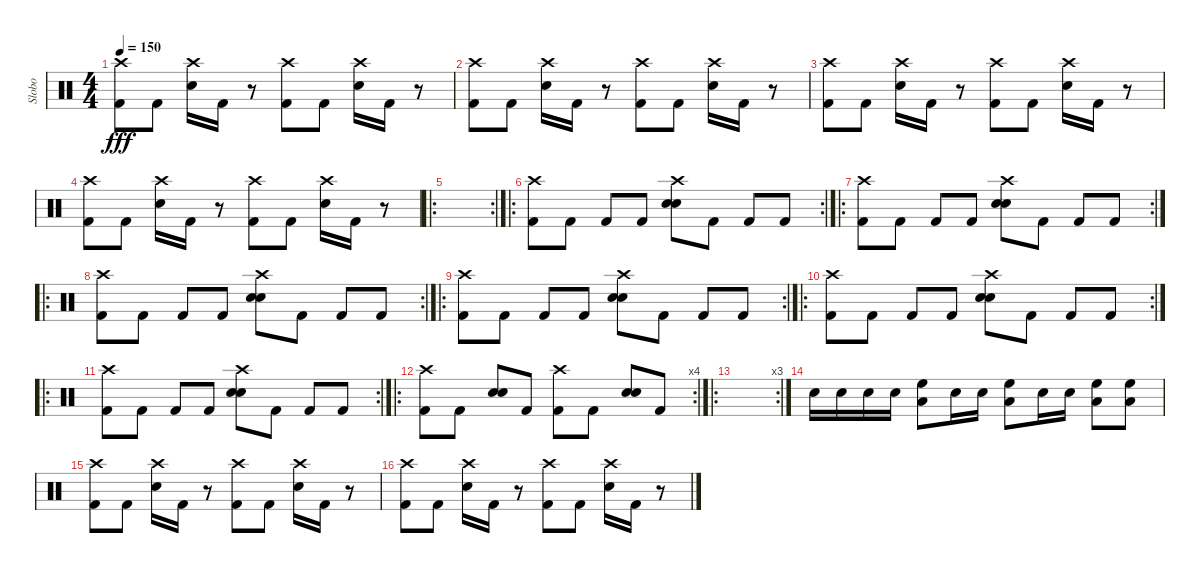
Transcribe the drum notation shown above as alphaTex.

\track ("Slobo" "Slobo") {instrument percussion}
\staff {score}
\articulation defaults
\ts (4 4)
\tempo 150
\clef neutral
\ks c
("Crash high (hit)" "Kick (hit) 2").8{dy fff} "Kick (hit) 2".8 ("Crash high (hit)" "Snare (hit) 2").16 "Kick (hit) 2".16 r.8 ("Crash high (hit)" "Kick (hit) 2").8 "Kick (hit) 2".8 ("Crash high (hit)" "Snare (hit) 2").16 "Kick (hit) 2".16 r.8 |
("Crash high (hit)" "Kick (hit) 2").8 "Kick (hit) 2".8 ("Crash high (hit)" "Snare (hit) 2").16 "Kick (hit) 2".16 r.8 ("Crash high (hit)" "Kick (hit) 2").8 "Kick (hit) 2".8 ("Crash high (hit)" "Snare (hit) 2").16 "Kick (hit) 2".16 r.8 |
("Crash high (hit)" "Kick (hit) 2").8 "Kick (hit) 2".8 ("Crash high (hit)" "Snare (hit) 2").16 "Kick (hit) 2".16 r.8 ("Crash high (hit)" "Kick (hit) 2").8 "Kick (hit) 2".8 ("Crash high (hit)" "Snare (hit) 2").16 "Kick (hit) 2".16 r.8 |
("Crash high (hit)" "Kick (hit) 2").8 "Kick (hit) 2".8 ("Crash high (hit)" "Snare (hit) 2").16 "Kick (hit) 2".16 r.8 ("Crash high (hit)" "Kick (hit) 2").8 "Kick (hit) 2".8 ("Crash high (hit)" "Snare (hit) 2").16 "Kick (hit) 2".16 r.8 |
\ro
\rc 2
|
\ro
\rc 2
("Crash high (hit)" "Kick (hit) 2").8 "Kick (hit) 2".8 "Kick (hit) 2".8 "Kick (hit) 2".8 ("Crash high (hit)" "Snare (hit) 2" "Snare (hit) 2").8{bd 480} "Kick (hit) 2".8 "Kick (hit) 2".8 "Kick (hit) 2".8 |
\ro
\rc 2
("Crash high (hit)" "Kick (hit) 2").8 "Kick (hit) 2".8 "Kick (hit) 2".8 "Kick (hit) 2".8 ("Crash high (hit)" "Snare (hit) 2" "Snare (hit) 2").8{bu 480} "Kick (hit) 2".8 "Kick (hit) 2".8 "Kick (hit) 2".8 |
\ro
\rc 2
("Crash high (hit)" "Kick (hit) 2").8 "Kick (hit) 2".8 "Kick (hit) 2".8 "Kick (hit) 2".8 ("Crash high (hit)" "Snare (hit) 2" "Snare (hit) 2").8{bu 480} "Kick (hit) 2".8 "Kick (hit) 2".8 "Kick (hit) 2".8 |
\ro
\rc 2
("Crash high (hit)" "Kick (hit) 2").8 "Kick (hit) 2".8 "Kick (hit) 2".8 "Kick (hit) 2".8 ("Crash high (hit)" "Snare (hit) 2" "Snare (hit) 2").8{bu 480} "Kick (hit) 2".8 "Kick (hit) 2".8 "Kick (hit) 2".8 |
\ro
\rc 2
("Crash high (hit)" "Kick (hit) 2").8 "Kick (hit) 2".8 "Kick (hit) 2".8 "Kick (hit) 2".8 ("Crash high (hit)" "Snare (hit) 2" "Snare (hit) 2").8{bu 480} "Kick (hit) 2".8 "Kick (hit) 2".8 "Kick (hit) 2".8 |
\ro
\rc 2
("Crash high (hit)" "Kick (hit) 2").8 "Kick (hit) 2".8 "Kick (hit) 2".8 "Kick (hit) 2".8 ("Crash high (hit)" "Snare (hit) 2" "Snare (hit) 2").8{bu 480} "Kick (hit) 2".8 "Kick (hit) 2".8 "Kick (hit) 2".8 |
\ro
\rc 4
("Crash high (hit)" "Kick (hit) 2").8 "Kick (hit) 2".8 ("Snare (hit) 2" "Snare (hit) 2").8{bu 480} "Kick (hit) 2".8 ("Crash high (hit)" "Kick (hit) 2").8 "Kick (hit) 2".8 ("Snare (hit) 2" "Snare (hit) 2").8{bu 480} "Kick (hit) 2".8 |
\ro
\rc 3
|
"Snare (hit) 2".16 "Snare (hit) 2".16 "Snare (hit) 2".16 "Snare (hit) 2".16 ("High Floor Tom (hit)" "Low Floor Tom (hit)").8 "Snare (hit) 2".16 "Snare (hit) 2".16 ("High Floor Tom (hit)" "Low Floor Tom (hit)").8 "Snare (hit) 2".16 "Snare (hit) 2".16 ("High Floor Tom (hit)" "Low Floor Tom (hit)").8 ("High Floor Tom (hit)" "Low Floor Tom (hit)").8 |
("Crash high (hit)" "Kick (hit) 2").8 "Kick (hit) 2".8 ("Crash high (hit)" "Snare (hit) 2").16 "Kick (hit) 2".16 r.8 ("Crash high (hit)" "Kick (hit) 2").8 "Kick (hit) 2".8 ("Crash high (hit)" "Snare (hit) 2").16 "Kick (hit) 2".16 r.8 |
("Crash high (hit)" "Kick (hit) 2").8 "Kick (hit) 2".8 ("Crash high (hit)" "Snare (hit) 2").16 "Kick (hit) 2".16 r.8 ("Crash high (hit)" "Kick (hit) 2").8 "Kick (hit) 2".8 ("Crash high (hit)" "Snare (hit) 2").16 "Kick (hit) 2".16 r.8
